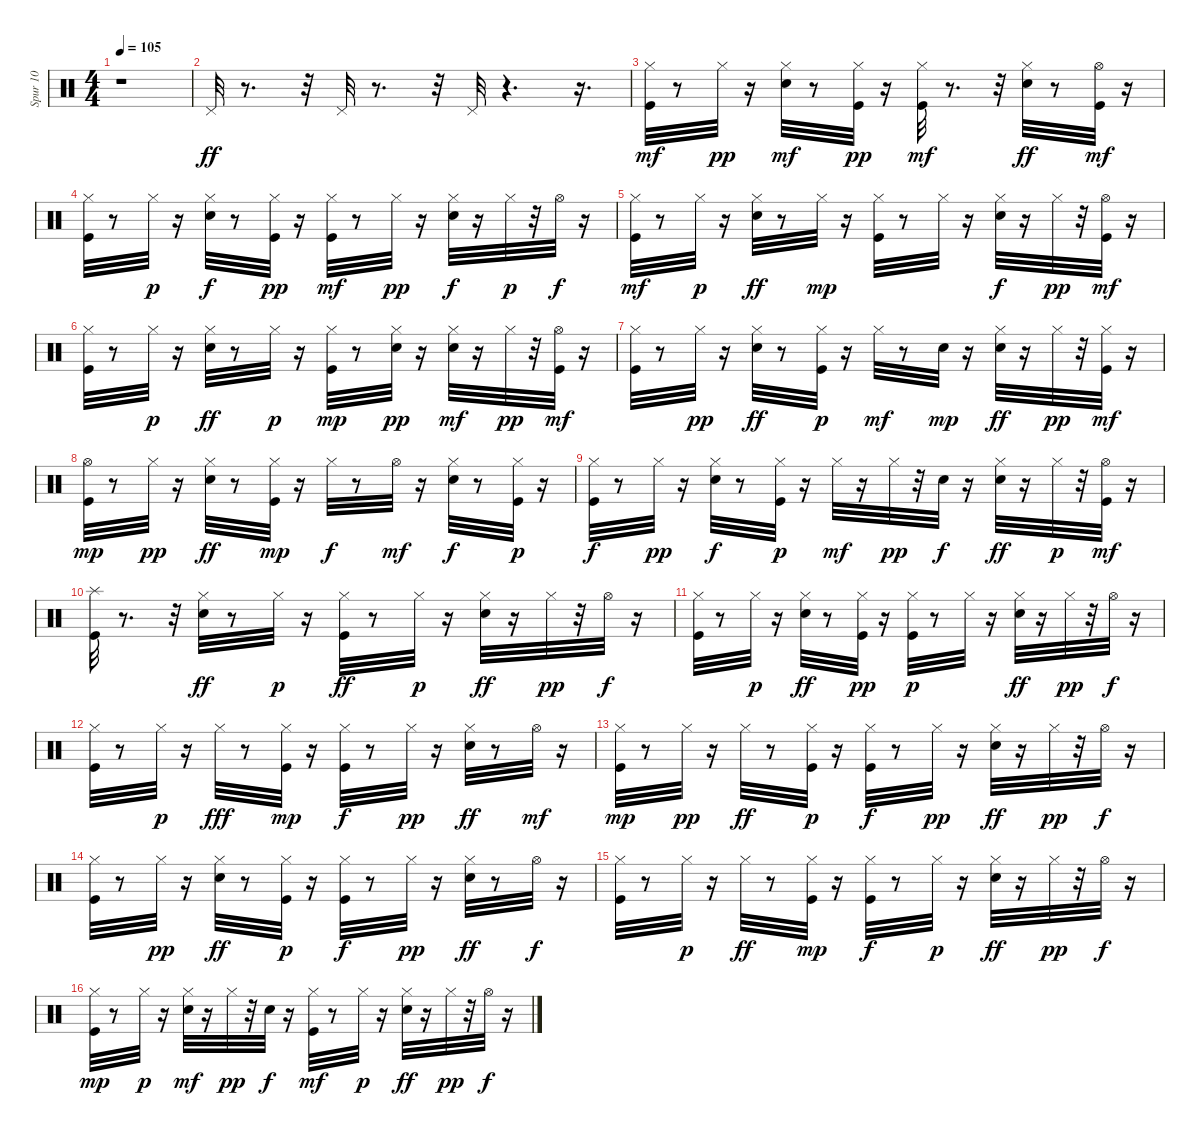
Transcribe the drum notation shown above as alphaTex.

\track ("Spur 10" "Spur 10") {instrument percussion}
\staff {score}
\articulation defaults
\ts (4 4)
\tempo 105
\clef neutral
\ks c
r.1{dy ff} |
"Pedal Hi-Hat (hit)".32 r.8{d} r.32 "Pedal Hi-Hat (hit)".32 r.8{d} r.32 "Pedal Hi-Hat (hit)".32 r.4{d} r.16{d} |
("Kick (hit)" "Hi-Hat (closed)").32{dy mf} r.8 "Hi-Hat (closed)".32{dy pp} r.16 ("Snare (hit) 2" "Hi-Hat (closed)").32{dy mf} r.8 ("Kick (hit)" "Hi-Hat (closed)").32{dy pp} r.16 ("Kick (hit)" "Hi-Hat (closed)").32{dy mf} r.8{d} r.32 ("Snare (hit) 2" "Hi-Hat (closed)").32{dy ff} r.8 ("Kick (hit)" "Hi-Hat (open)").32{dy mf} r.16 |
("Kick (hit)" "Hi-Hat (closed)").32 r.8 "Hi-Hat (closed)".32{dy p} r.16 ("Snare (hit) 2" "Hi-Hat (closed)").32{dy f} r.8 ("Kick (hit)" "Hi-Hat (closed)").32{dy pp} r.16 ("Kick (hit)" "Hi-Hat (closed)").32{dy mf} r.8 "Hi-Hat (closed)".32{dy pp} r.16 ("Snare (hit) 2" "Hi-Hat (closed)").32{dy f} r.16 "Hi-Hat (closed)".32{dy p} r.32 "Hi-Hat (open)".32{dy f} r.16 |
("Kick (hit)" "Hi-Hat (closed)").32{dy mf} r.8 "Hi-Hat (closed)".32{dy p} r.16 ("Snare (hit) 2" "Hi-Hat (closed)").32{dy ff} r.8 "Hi-Hat (closed)".32{dy mp} r.16 ("Kick (hit)" "Hi-Hat (closed)").32 r.8 "Hi-Hat (closed)".32 r.16 ("Snare (hit) 2" "Hi-Hat (closed)").32{dy f} r.16 "Hi-Hat (closed)".32{dy pp} r.32 ("Kick (hit)" "Hi-Hat (open)").32{dy mf} r.16 |
("Kick (hit)" "Hi-Hat (closed)").32 r.8 "Hi-Hat (closed)".32{dy p} r.16 ("Snare (hit) 2" "Hi-Hat (closed)").32{dy ff} r.8 "Hi-Hat (closed)".32{dy p} r.16 ("Kick (hit)" "Hi-Hat (closed)").32{dy mp} r.8 ("Snare (hit) 2" "Hi-Hat (closed)").32{dy pp} r.16 ("Snare (hit) 2" "Hi-Hat (closed)").32{dy mf} r.16 "Hi-Hat (closed)".32{dy pp} r.32 ("Kick (hit)" "Hi-Hat (open)").32{dy mf} r.16 |
("Kick (hit)" "Hi-Hat (closed)").32 r.8 "Hi-Hat (closed)".32{dy pp} r.16 ("Snare (hit) 2" "Hi-Hat (closed)").32{dy ff} r.8 ("Kick (hit)" "Hi-Hat (closed)").32{dy p} r.16 "Hi-Hat (closed)".32{dy mf} r.8 "Snare (hit) 2".32{dy mp} r.16 ("Snare (hit) 2" "Hi-Hat (closed)").32{dy ff} r.16 "Hi-Hat (closed)".32{dy pp} r.32 ("Kick (hit)" "Hi-Hat (closed)").32{dy mf} r.16 |
("Kick (hit)" "Hi-Hat (open)").32{dy mp} r.8 "Hi-Hat (closed)".32{dy pp} r.16 ("Snare (hit) 2" "Hi-Hat (closed)").32{dy ff} r.8 ("Kick (hit)" "Hi-Hat (closed)").32{dy mp} r.16 "Hi-Hat (closed)".32{dy f} r.8 "Hi-Hat (open)".32{dy mf} r.16 ("Snare (hit) 2" "Hi-Hat (closed)").32{dy f} r.8 ("Kick (hit)" "Hi-Hat (closed)").32{dy p} r.16 |
("Kick (hit)" "Hi-Hat (closed)").32{dy f} r.8 "Hi-Hat (closed)".32{dy pp} r.16 ("Snare (hit) 2" "Hi-Hat (closed)").32{dy f} r.8 ("Kick (hit)" "Hi-Hat (closed)").32{dy p} r.16 "Hi-Hat (closed)".32{dy mf} r.16 "Hi-Hat (closed)".32{dy pp} r.32 "Snare (hit) 2".32{dy f} r.16 ("Snare (hit) 2" "Hi-Hat (closed)").32{dy ff} r.16 "Hi-Hat (closed)".32{dy p} r.32 ("Kick (hit)" "Hi-Hat (open)").32{dy mf} r.16 |
("Kick (hit)" "Splash (hit)").32 r.8{d} r.32 ("Snare (hit) 2" "Hi-Hat (closed)").32{dy ff} r.8 "Hi-Hat (closed)".32{dy p} r.16 ("Kick (hit)" "Hi-Hat (closed)").32{dy ff} r.8 "Hi-Hat (closed)".32{dy p} r.16 ("Snare (hit) 2" "Hi-Hat (closed)").32{dy ff} r.16 "Hi-Hat (closed)".32{dy pp} r.32 "Hi-Hat (open)".32{dy f} r.16 |
("Kick (hit)" "Hi-Hat (closed)").32 r.8 "Hi-Hat (closed)".32{dy p} r.16 ("Snare (hit) 2" "Hi-Hat (closed)").32{dy ff} r.8 ("Kick (hit)" "Hi-Hat (closed)").32{dy pp} r.16 ("Kick (hit)" "Hi-Hat (closed)").32{dy p} r.8 "Hi-Hat (closed)".32 r.16 ("Snare (hit) 2" "Hi-Hat (closed)").32{dy ff} r.16 "Hi-Hat (closed)".32{dy pp} r.32 "Hi-Hat (open)".32{dy f} r.16 |
("Kick (hit)" "Hi-Hat (closed)").32 r.8 "Hi-Hat (closed)".32{dy p} r.16 "Hi-Hat (closed)".32{dy fff} r.8 ("Kick (hit)" "Hi-Hat (closed)").32{dy mp} r.16 ("Kick (hit)" "Hi-Hat (closed)").32{dy f} r.8 "Hi-Hat (closed)".32{dy pp} r.16 ("Snare (hit) 2" "Hi-Hat (closed)").32{dy ff} r.8 "Hi-Hat (open)".32{dy mf} r.16 |
("Kick (hit)" "Hi-Hat (closed)").32{dy mp} r.8 "Hi-Hat (closed)".32{dy pp} r.16 "Hi-Hat (closed)".32{dy ff} r.8 ("Kick (hit)" "Hi-Hat (closed)").32{dy p} r.16 ("Kick (hit)" "Hi-Hat (closed)").32{dy f} r.8 "Hi-Hat (closed)".32{dy pp} r.16 ("Snare (hit) 2" "Hi-Hat (closed)").32{dy ff} r.16 "Hi-Hat (closed)".32{dy pp} r.32 "Hi-Hat (open)".32{dy f} r.16 |
("Kick (hit)" "Hi-Hat (closed)").32 r.8 "Hi-Hat (closed)".32{dy pp} r.16 ("Snare (hit) 2" "Hi-Hat (closed)").32{dy ff} r.8 ("Kick (hit)" "Hi-Hat (closed)").32{dy p} r.16 ("Kick (hit)" "Hi-Hat (closed)").32{dy f} r.8 "Hi-Hat (closed)".32{dy pp} r.16 ("Snare (hit) 2" "Hi-Hat (closed)").32{dy ff} r.8 "Hi-Hat (open)".32{dy f} r.16 |
("Kick (hit)" "Hi-Hat (closed)").32 r.8 "Hi-Hat (closed)".32{dy p} r.16 "Hi-Hat (closed)".32{dy ff} r.8 ("Kick (hit)" "Hi-Hat (closed)").32{dy mp} r.16 ("Kick (hit)" "Hi-Hat (closed)").32{dy f} r.8 "Hi-Hat (closed)".32{dy p} r.16 ("Snare (hit) 2" "Hi-Hat (closed)").32{dy ff} r.16 "Hi-Hat (closed)".32{dy pp} r.32 "Hi-Hat (open)".32{dy f} r.16 |
("Kick (hit)" "Hi-Hat (closed)").32{dy mp} r.8 "Hi-Hat (closed)".32{dy p} r.16 ("Snare (hit) 2" "Hi-Hat (closed)").32{dy mf} r.16 "Hi-Hat (closed)".32{dy pp} r.32 "Electric Snare (hit)".32{dy f} r.16 ("Kick (hit)" "Hi-Hat (closed)").32{dy mf} r.8 "Hi-Hat (closed)".32{dy p} r.16 ("Snare (hit) 2" "Hi-Hat (closed)").32{dy ff} r.16 "Hi-Hat (closed)".32{dy pp} r.32 "Hi-Hat (open)".32{dy f} r.16
